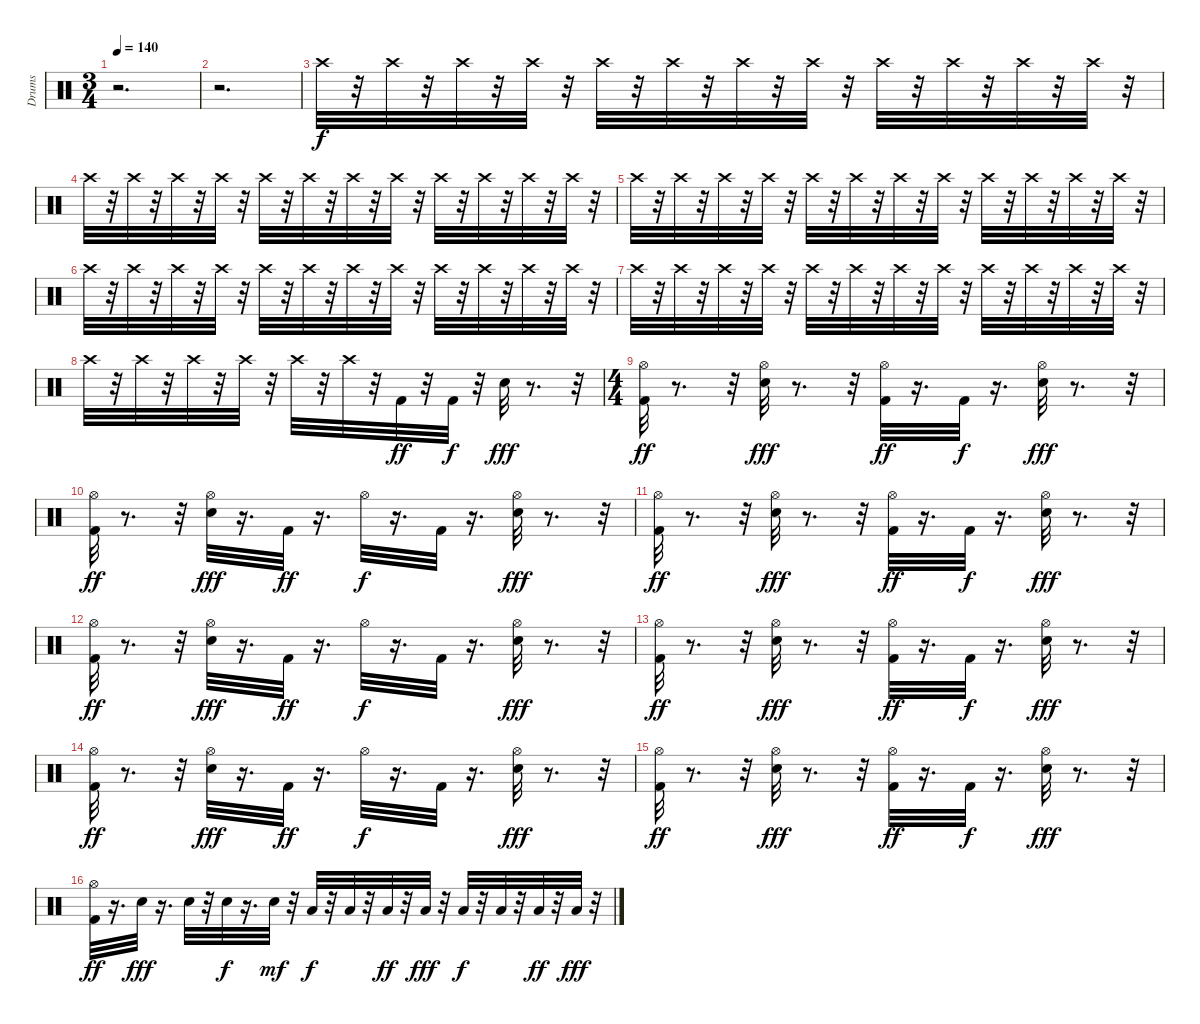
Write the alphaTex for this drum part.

\track ("Drums" "Drums") {instrument percussion}
\staff {score}
\articulation defaults
\ts (3 4)
\tempo 140
\clef neutral
\ks c
r.2{d dy ff} |
r.2{d} |
"Crash high (hit)".32{dy f volume 6} r.32 "Crash high (hit)".32{volume 7} r.32 "Crash high (hit)".32 r.32 "Crash high (hit)".32 r.32 "Crash high (hit)".32 r.32 "Crash high (hit)".32 r.32 "Crash high (hit)".32 r.32 "Crash high (hit)".32{volume 7} r.32 "Crash high (hit)".32{volume 8} r.32 "Crash high (hit)".32{volume 8} r.32 "Crash high (hit)".32{volume 8} r.32 "Crash high (hit)".32{volume 8} r.32 |
"Crash high (hit)".32 r.32 "Crash high (hit)".32{volume 8} r.32 "Crash high (hit)".32 r.32 "Crash high (hit)".32{volume 8} r.32 "Crash high (hit)".32{volume 8} r.32 "Crash high (hit)".32{volume 9} r.32 "Crash high (hit)".32{volume 9} r.32 "Crash high (hit)".32{volume 9} r.32 "Crash high (hit)".32{volume 10} r.32 "Crash high (hit)".32{volume 10} r.32 "Crash high (hit)".32{volume 10} r.32 "Crash high (hit)".32{volume 10} r.32 |
"Crash high (hit)".32 r.32 "Crash high (hit)".32{volume 10} r.32 "Crash high (hit)".32 r.32 "Crash high (hit)".32{volume 10} r.32 "Crash high (hit)".32{volume 11} r.32 "Crash high (hit)".32{volume 11} r.32 "Crash high (hit)".32{volume 11} r.32 "Crash high (hit)".32{volume 11} r.32 "Crash high (hit)".32{volume 11} r.32 "Crash high (hit)".32{volume 12} r.32 "Crash high (hit)".32{volume 12} r.32 "Crash high (hit)".32{volume 12} r.32 |
"Crash high (hit)".32 r.32 "Crash high (hit)".32 r.32 "Crash high (hit)".32{volume 12} r.32 "Crash high (hit)".32{volume 11} r.32 "Crash high (hit)".32{volume 11} r.32 "Crash high (hit)".32{volume 11} r.32 "Crash high (hit)".32{volume 11} r.32 "Crash high (hit)".32{volume 10} r.32 "Crash high (hit)".32{volume 10} r.32 "Crash high (hit)".32{volume 10} r.32 "Crash high (hit)".32{volume 10} r.32 "Crash high (hit)".32 r.32 |
"Crash high (hit)".32 r.32 "Crash high (hit)".32{volume 10} r.32 "Crash high (hit)".32{volume 10} r.32 "Crash high (hit)".32{volume 10} r.32 "Crash high (hit)".32{volume 9} r.32 "Crash high (hit)".32{volume 9} r.32 "Crash high (hit)".32{volume 9} r.32 "Crash high (hit)".32{volume 9} r.32 "Crash high (hit)".32 r.32 "Crash high (hit)".32{volume 9} r.32 "Crash high (hit)".32{volume 9} r.32 "Crash high (hit)".32 r.32 |
"Crash high (hit)".32{volume 8} r.32 "Crash high (hit)".32{volume 8} r.32 "Crash high (hit)".32{volume 8} r.32 "Crash high (hit)".32{volume 8} r.32 "Crash high (hit)".32{volume 8} r.32 "Crash high (hit)".32{volume 7} r.32 "Kick (hit) 2".32{dy ff volume 16} r.32 "Kick (hit) 2".32{dy f} r.32 "Snare (hit) 2".32{dy fff} r.8{d} r.32 |
\ts (4 4)
("Kick (hit) 2" "Hi-Hat (open)").32{dy ff} r.8{d} r.32 ("Snare (hit) 2" "Hi-Hat (open)").32{dy fff} r.8{d} r.32 ("Kick (hit) 2" "Hi-Hat (open)").32{dy ff} r.16{d} "Kick (hit) 2".32{dy f} r.16{d} ("Snare (hit) 2" "Hi-Hat (open)").32{dy fff} r.8{d} r.32 |
("Kick (hit) 2" "Hi-Hat (open)").32{dy ff} r.8{d} r.32 ("Snare (hit) 2" "Hi-Hat (open)").32{dy fff} r.16{d} "Kick (hit) 2".32{dy ff} r.16{d} "Hi-Hat (open)".32{dy f} r.16{d} "Kick (hit) 2".32 r.16{d} ("Snare (hit) 2" "Hi-Hat (open)").32{dy fff} r.8{d} r.32 |
("Kick (hit) 2" "Hi-Hat (open)").32{dy ff} r.8{d} r.32 ("Snare (hit) 2" "Hi-Hat (open)").32{dy fff} r.8{d} r.32 ("Kick (hit) 2" "Hi-Hat (open)").32{dy ff} r.16{d} "Kick (hit) 2".32{dy f} r.16{d} ("Snare (hit) 2" "Hi-Hat (open)").32{dy fff} r.8{d} r.32 |
("Kick (hit) 2" "Hi-Hat (open)").32{dy ff} r.8{d} r.32 ("Snare (hit) 2" "Hi-Hat (open)").32{dy fff} r.16{d} "Kick (hit) 2".32{dy ff} r.16{d} "Hi-Hat (open)".32{dy f} r.16{d} "Kick (hit) 2".32 r.16{d} ("Snare (hit) 2" "Hi-Hat (open)").32{dy fff} r.8{d} r.32 |
("Kick (hit) 2" "Hi-Hat (open)").32{dy ff} r.8{d} r.32 ("Snare (hit) 2" "Hi-Hat (open)").32{dy fff} r.8{d} r.32 ("Kick (hit) 2" "Hi-Hat (open)").32{dy ff} r.16{d} "Kick (hit) 2".32{dy f} r.16{d} ("Snare (hit) 2" "Hi-Hat (open)").32{dy fff} r.8{d} r.32 |
("Kick (hit) 2" "Hi-Hat (open)").32{dy ff} r.8{d} r.32 ("Snare (hit) 2" "Hi-Hat (open)").32{dy fff} r.16{d} "Kick (hit) 2".32{dy ff} r.16{d} "Hi-Hat (open)".32{dy f} r.16{d} "Kick (hit) 2".32 r.16{d} ("Snare (hit) 2" "Hi-Hat (open)").32{dy fff} r.8{d} r.32 |
("Kick (hit) 2" "Hi-Hat (open)").32{dy ff} r.8{d} r.32 ("Snare (hit) 2" "Hi-Hat (open)").32{dy fff} r.8{d} r.32 ("Kick (hit) 2" "Hi-Hat (open)").32{dy ff} r.16{d} "Kick (hit) 2".32{dy f} r.16{d} ("Snare (hit) 2" "Hi-Hat (open)").32{dy fff} r.8{d} r.32 |
("Kick (hit) 2" "Hi-Hat (open)").32{dy ff} r.16{d} "Snare (hit) 2".32{dy fff} r.16{d} "Snare (hit) 2".32 r.32 "Snare (hit) 2".32{dy f} r.16{d} "Snare (hit) 2".32{dy mf} r.32 "Low Tom (hit)".32{dy f} r.32 "Low Tom (hit)".32 r.32 "Low Tom (hit)".32{dy ff} r.32 "Low Tom (hit)".32{dy fff} r.32 "Low Floor Tom (hit)".32{dy f} r.32 "Low Floor Tom (hit)".32 r.32 "Low Floor Tom (hit)".32{dy ff} r.32 "Low Floor Tom (hit)".32{dy fff} r.32
